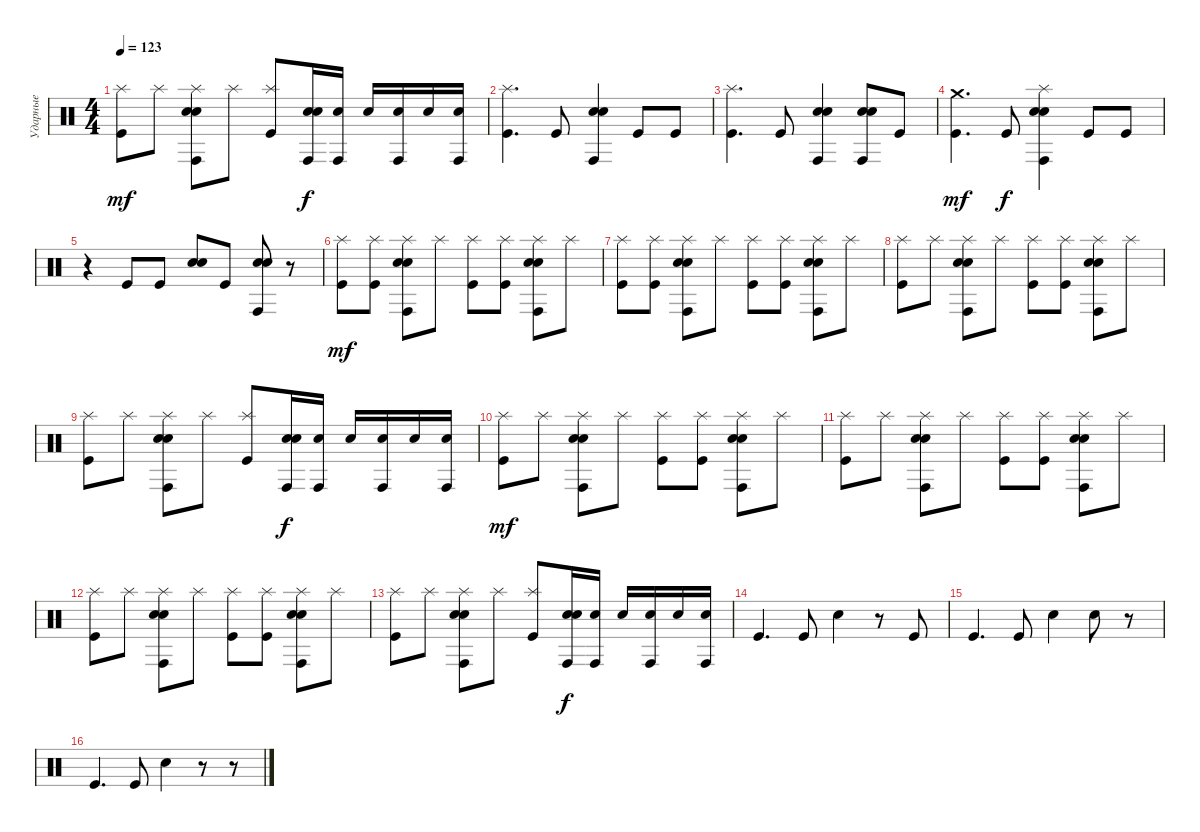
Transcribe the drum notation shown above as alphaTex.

\track ("Ударные" "Ударные") {instrument percussion}
\staff {score}
\articulation defaults
\ts (4 4)
\tempo 123
\clef neutral
\ks c
("Splash (hit)" "Kick (hit)").8{dy mf} "Splash (hit)".8 ("Splash (hit)" "Conga high (hit)" "Electric Snare (hit)" "Snare (hit) 2").8 "Splash (hit)".8 ("Splash (hit)" "Kick (hit)").8 ("Conga high (hit)" "Electric Snare (hit)" "Snare (hit) 2").16{dy f} ("Conga high (hit)" "Electric Snare (hit)").16 "Electric Snare (hit)".16 ("Conga high (hit)" "Electric Snare (hit)").16 "Electric Snare (hit)".16 ("Conga high (hit)" "Electric Snare (hit)").16 |
("Splash (hit)" "Kick (hit)").4{d} "Kick (hit)".8 ("Conga high (hit)" "Electric Snare (hit)" "Snare (hit) 2").4 "Kick (hit)".8 "Kick (hit)".8 |
("Splash (hit)" "Kick (hit)").4{d} "Kick (hit)".8 ("Conga high (hit)" "Electric Snare (hit)" "Snare (hit) 2").4 ("Conga high (hit)" "Electric Snare (hit)" "Snare (hit) 2").8 "Kick (hit)".8 |
("Crash medium (hit)" "Kick (hit)").4{d dy mf} "Kick (hit)".8{dy f} ("Splash (hit)" "Conga high (hit)" "Electric Snare (hit)" "Snare (hit) 2").4 "Kick (hit)".8 "Kick (hit)".8 |
r.4 "Kick (hit)".8 "Kick (hit)".8 ("Electric Snare (hit)" "Snare (hit) 2").8 "Kick (hit)".8 ("Conga high (hit)" "Electric Snare (hit)" "Snare (hit) 2").8 r.8 |
("Splash (hit)" "Kick (hit)").8{dy mf} ("Splash (hit)" "Kick (hit)").8 ("Splash (hit)" "Conga high (hit)" "Electric Snare (hit)" "Snare (hit) 2").8 "Splash (hit)".8 ("Splash (hit)" "Kick (hit)").8 ("Splash (hit)" "Kick (hit)").8 ("Splash (hit)" "Conga high (hit)" "Electric Snare (hit)" "Snare (hit) 2").8 "Splash (hit)".8 |
("Splash (hit)" "Kick (hit)").8 ("Splash (hit)" "Kick (hit)").8 ("Splash (hit)" "Conga high (hit)" "Electric Snare (hit)" "Snare (hit) 2").8 "Splash (hit)".8 ("Splash (hit)" "Kick (hit)").8 ("Splash (hit)" "Kick (hit)").8 ("Splash (hit)" "Conga high (hit)" "Electric Snare (hit)" "Snare (hit) 2").8 "Splash (hit)".8 |
("Splash (hit)" "Kick (hit)").8 "Splash (hit)".8 ("Splash (hit)" "Conga high (hit)" "Electric Snare (hit)" "Snare (hit) 2").8 "Splash (hit)".8 ("Splash (hit)" "Kick (hit)").8 ("Splash (hit)" "Kick (hit)").8 ("Splash (hit)" "Conga high (hit)" "Electric Snare (hit)" "Snare (hit) 2").8 "Splash (hit)".8 |
("Splash (hit)" "Kick (hit)").8 "Splash (hit)".8 ("Splash (hit)" "Conga high (hit)" "Electric Snare (hit)" "Snare (hit) 2").8 "Splash (hit)".8 ("Splash (hit)" "Kick (hit)").8 ("Conga high (hit)" "Electric Snare (hit)" "Snare (hit) 2").16{dy f} ("Conga high (hit)" "Electric Snare (hit)").16 "Electric Snare (hit)".16 ("Conga high (hit)" "Electric Snare (hit)").16 "Electric Snare (hit)".16 ("Conga high (hit)" "Electric Snare (hit)").16 |
("Splash (hit)" "Kick (hit)").8{dy mf} "Splash (hit)".8 ("Splash (hit)" "Conga high (hit)" "Electric Snare (hit)" "Snare (hit) 2").8 "Splash (hit)".8 ("Splash (hit)" "Kick (hit)").8 ("Splash (hit)" "Kick (hit)").8 ("Splash (hit)" "Conga high (hit)" "Electric Snare (hit)" "Snare (hit) 2").8 "Splash (hit)".8 |
("Splash (hit)" "Kick (hit)").8 "Splash (hit)".8 ("Splash (hit)" "Conga high (hit)" "Electric Snare (hit)" "Snare (hit) 2").8 "Splash (hit)".8 ("Splash (hit)" "Kick (hit)").8 ("Splash (hit)" "Kick (hit)").8 ("Splash (hit)" "Conga high (hit)" "Electric Snare (hit)" "Snare (hit) 2").8 "Splash (hit)".8 |
("Splash (hit)" "Kick (hit)").8 "Splash (hit)".8 ("Splash (hit)" "Conga high (hit)" "Electric Snare (hit)" "Snare (hit) 2").8 "Splash (hit)".8 ("Splash (hit)" "Kick (hit)").8 ("Splash (hit)" "Kick (hit)").8 ("Splash (hit)" "Conga high (hit)" "Electric Snare (hit)" "Snare (hit) 2").8 "Splash (hit)".8 |
("Splash (hit)" "Kick (hit)").8 "Splash (hit)".8 ("Splash (hit)" "Conga high (hit)" "Electric Snare (hit)" "Snare (hit) 2").8 "Splash (hit)".8 ("Splash (hit)" "Kick (hit)").8 ("Conga high (hit)" "Electric Snare (hit)" "Snare (hit) 2").16{dy f} ("Conga high (hit)" "Electric Snare (hit)").16 "Electric Snare (hit)".16 ("Conga high (hit)" "Electric Snare (hit)").16 "Electric Snare (hit)".16 ("Conga high (hit)" "Electric Snare (hit)").16 |
"Kick (hit)".4{d} "Kick (hit)".8 "Electric Snare (hit)".4 r.8 "Kick (hit)".8 |
"Kick (hit)".4{d} "Kick (hit)".8 "Electric Snare (hit)".4 "Electric Snare (hit)".8 r.8 |
"Kick (hit)".4{d} "Kick (hit)".8 "Electric Snare (hit)".4 r.8 r.8
